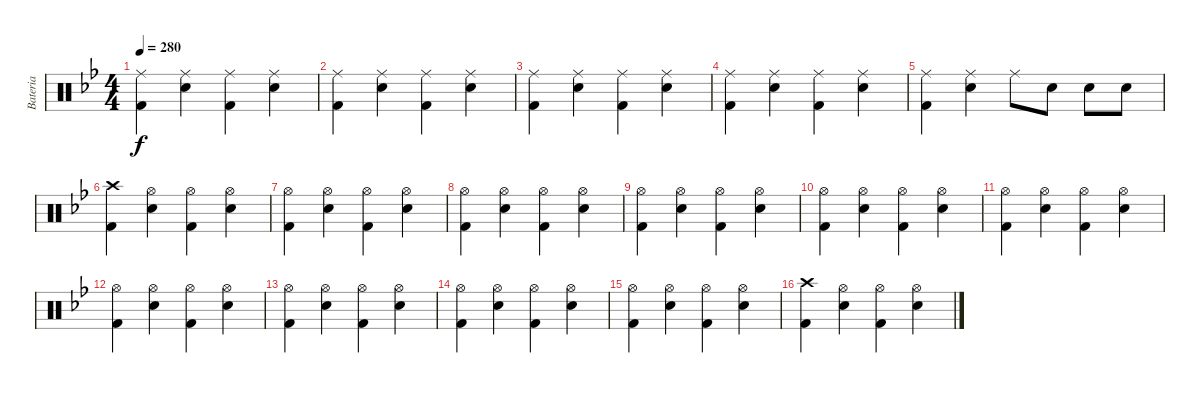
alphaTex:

\track ("Bateria" "Bateria") {instrument percussion}
\staff {score}
\articulation defaults
\ts (4 4)
\tempo 280
\clef neutral
\ks bb
("Ride (middle)" "Kick (hit) 2").4{dy f} ("Ride (middle)" "Electric Snare (hit)").4 ("Ride (middle)" "Kick (hit) 2").4 ("Ride (middle)" "Electric Snare (hit)").4 |
("Ride (middle)" "Kick (hit) 2").4 ("Ride (middle)" "Electric Snare (hit)").4 ("Ride (middle)" "Kick (hit) 2").4 ("Ride (middle)" "Electric Snare (hit)").4 |
("Ride (middle)" "Kick (hit) 2").4 ("Ride (middle)" "Electric Snare (hit)").4 ("Ride (middle)" "Kick (hit) 2").4 ("Ride (middle)" "Electric Snare (hit)").4 |
("Ride (middle)" "Kick (hit) 2").4 ("Ride (middle)" "Electric Snare (hit)").4 ("Ride (middle)" "Kick (hit) 2").4 ("Ride (middle)" "Electric Snare (hit)").4 |
("Ride (middle)" "Kick (hit) 2").4 ("Ride (middle)" "Electric Snare (hit)").4 "Ride (middle)".8 "Electric Snare (hit)".8 "Electric Snare (hit)".8 "Electric Snare (hit)".8 |
("Crash high (hit)" "Kick (hit) 2").4 ("Hi-Hat (open)" "Electric Snare (hit)").4 ("Hi-Hat (open)" "Kick (hit) 2").4 ("Hi-Hat (open)" "Electric Snare (hit)").4 |
("Hi-Hat (open)" "Kick (hit) 2").4 ("Hi-Hat (open)" "Electric Snare (hit)").4 ("Hi-Hat (open)" "Kick (hit) 2").4 ("Hi-Hat (open)" "Electric Snare (hit)").4 |
("Hi-Hat (open)" "Kick (hit) 2").4 ("Hi-Hat (open)" "Electric Snare (hit)").4 ("Hi-Hat (open)" "Kick (hit) 2").4 ("Hi-Hat (open)" "Electric Snare (hit)").4 |
("Hi-Hat (open)" "Kick (hit) 2").4 ("Hi-Hat (open)" "Electric Snare (hit)").4 ("Hi-Hat (open)" "Kick (hit) 2").4 ("Hi-Hat (open)" "Electric Snare (hit)").4 |
("Hi-Hat (open)" "Kick (hit) 2").4 ("Hi-Hat (open)" "Electric Snare (hit)").4 ("Hi-Hat (open)" "Kick (hit) 2").4 ("Hi-Hat (open)" "Electric Snare (hit)").4 |
("Hi-Hat (open)" "Kick (hit) 2").4 ("Hi-Hat (open)" "Electric Snare (hit)").4 ("Hi-Hat (open)" "Kick (hit) 2").4 ("Hi-Hat (open)" "Electric Snare (hit)").4 |
("Hi-Hat (open)" "Kick (hit) 2").4 ("Hi-Hat (open)" "Electric Snare (hit)").4 ("Hi-Hat (open)" "Kick (hit) 2").4 ("Hi-Hat (open)" "Electric Snare (hit)").4 |
("Hi-Hat (open)" "Kick (hit) 2").4 ("Hi-Hat (open)" "Electric Snare (hit)").4 ("Hi-Hat (open)" "Kick (hit) 2").4 ("Hi-Hat (open)" "Electric Snare (hit)").4 |
("Hi-Hat (open)" "Kick (hit) 2").4 ("Hi-Hat (open)" "Electric Snare (hit)").4 ("Hi-Hat (open)" "Kick (hit) 2").4 ("Hi-Hat (open)" "Electric Snare (hit)").4 |
("Hi-Hat (open)" "Kick (hit) 2").4 ("Hi-Hat (open)" "Electric Snare (hit)").4 ("Hi-Hat (open)" "Kick (hit) 2").4 ("Hi-Hat (open)" "Electric Snare (hit)").4 |
("Crash high (hit)" "Kick (hit) 2").4 ("Hi-Hat (open)" "Electric Snare (hit)").4 ("Hi-Hat (open)" "Kick (hit) 2").4 ("Hi-Hat (open)" "Electric Snare (hit)").4
